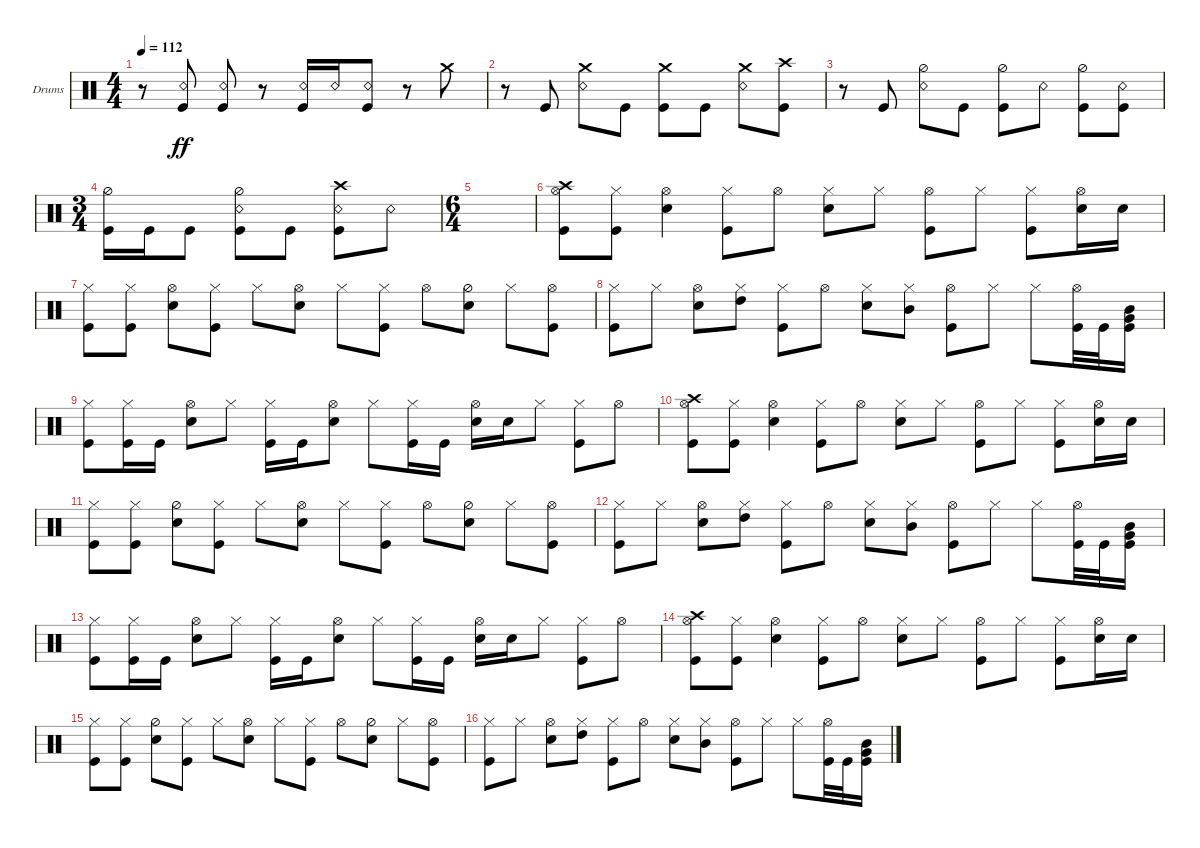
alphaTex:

\defaultSystemsLayout 4
\bracketExtendMode groupsimilarinstruments
\firstSystemTrackNameOrientation horizontal
\otherSystemsTrackNameOrientation horizontal
\track ("Kaleb - Drums" "Drums") {instrument percussion}
\staff {score}
\articulation defaults
\ts (4 4)
\tempo 112
\clef neutral
\ks c
r.8{dy ff} ("Snare (rim shot)" "Kick (hit)").8 ("Snare (rim shot)" "Kick (hit)").8 r.8 ("Snare (rim shot)" "Kick (hit)").16 "Snare (rim shot)".16 ("Snare (rim shot)" "Kick (hit)").8 r.8 "Crash medium (hit)".8 |
r.8 "Kick (hit)".8 ("Snare (rim shot)" "Crash medium (hit)").8 "Kick (hit)".8 ("Kick (hit)" "Crash medium (hit)").8 "Kick (hit)".8 ("Snare (rim shot)" "Crash medium (hit)").8 ("Kick (hit)" "Crash high (hit)").8 |
r.8 "Kick (hit)".8 ("Snare (rim shot)" "Hi-Hat (half)").8 "Kick (hit)".8 ("Kick (hit)" "Hi-Hat (half)").8 "Snare (rim shot)".8 ("Kick (hit)" "Hi-Hat (half)").8 ("Snare (rim shot)" "Kick (hit)").8 |
\ts (3 4)
("Kick (hit)" "Hi-Hat (half)").16 "Kick (hit)".16 "Kick (hit)".8 ("Kick (hit)" "Hi-Hat (half)" "Snare (rim shot)").8 "Kick (hit)".8 ("Kick (hit)" "Snare (rim shot)" "Crash high (hit)").8 "Snare (rim shot)".8 |
\ts (6 4)
|
("Hi-Hat (open)" "Kick (hit)" "Crash high (hit)").8 ("Kick (hit)" "Hi-Hat (closed)").8 ("Hi-Hat (open)" "Snare (hit) 2").4 ("Kick (hit)" "Hi-Hat (closed)").8 "Hi-Hat (open)".8 ("Hi-Hat (closed)" "Snare (hit) 2").8 "Hi-Hat (closed)".8 ("Hi-Hat (open)" "Kick (hit)").8 "Hi-Hat (closed)".8 ("Kick (hit)" "Hi-Hat (closed)").8 ("Snare (hit) 2" "Hi-Hat (open)").16 "Snare (hit) 2".16 |
("Hi-Hat (closed)" "Kick (hit)").8 ("Hi-Hat (closed)" "Kick (hit)").8 ("Hi-Hat (open)" "Snare (hit) 2").8 ("Hi-Hat (closed)" "Kick (hit)").8 "Hi-Hat (closed)".8 ("Hi-Hat (open)" "Snare (hit) 2").8 "Hi-Hat (closed)".8 ("Hi-Hat (closed)" "Kick (hit)").8 "Hi-Hat (open)".8 ("Hi-Hat (half)" "Snare (hit) 2").8 "Hi-Hat (closed)".8 ("Hi-Hat (open)" "Kick (hit)").8 |
("Kick (hit)" "Hi-Hat (closed)").8 "Hi-Hat (closed)".8 ("Hi-Hat (open)" "Snare (hit) 2").8 ("Hi-Hat (closed)" "High Tom (hit)").8 ("Hi-Hat (closed)" "Kick (hit)").8 "Hi-Hat (open)".8 ("Hi-Hat (closed)" "Snare (hit) 2").8 ("Hi-Hat (closed)" "Mid Tom (hit)").8 ("Hi-Hat (open)" "Kick (hit)").8 "Hi-Hat (closed)".8 "Hi-Hat (closed)".8 ("Kick (hit)" "Hi-Hat (open)").32 "Kick (hit)".32 ("Mid Tom (hit)" "Very Low Tom (hit)" "Kick (hit)").16 |
("Kick (hit)" "Hi-Hat (closed)").8 ("Kick (hit)" "Hi-Hat (closed)").16 "Kick (hit)".16 ("Snare (hit) 2" "Hi-Hat (open)").8 "Hi-Hat (closed)".8 ("Hi-Hat (closed)" "Kick (hit)").16 "Kick (hit)".16 ("Hi-Hat (open)" "Snare (hit) 2").8 "Hi-Hat (closed)".8 ("Hi-Hat (closed)" "Kick (hit)").16 "Kick (hit)".16 ("Hi-Hat (open)" "Snare (hit) 2").16 "Snare (hit) 2".16 "Hi-Hat (closed)".8 ("Hi-Hat (closed)" "Kick (hit)").8 "Hi-Hat (open)".8 |
("Hi-Hat (open)" "Kick (hit)" "Crash high (hit)").8 ("Kick (hit)" "Hi-Hat (closed)").8 ("Hi-Hat (open)" "Snare (hit) 2").4 ("Kick (hit)" "Hi-Hat (closed)").8 "Hi-Hat (open)".8 ("Hi-Hat (closed)" "Snare (hit) 2").8 "Hi-Hat (closed)".8 ("Hi-Hat (open)" "Kick (hit)").8 "Hi-Hat (closed)".8 ("Kick (hit)" "Hi-Hat (closed)").8 ("Snare (hit) 2" "Hi-Hat (open)").16 "Snare (hit) 2".16 |
("Hi-Hat (closed)" "Kick (hit)").8 ("Hi-Hat (closed)" "Kick (hit)").8 ("Hi-Hat (half)" "Snare (hit) 2").8 ("Hi-Hat (closed)" "Kick (hit)").8 "Hi-Hat (closed)".8 ("Hi-Hat (open)" "Snare (hit) 2").8 "Hi-Hat (closed)".8 ("Hi-Hat (closed)" "Kick (hit)").8 "Hi-Hat (open)".8 ("Hi-Hat (half)" "Snare (hit) 2").8 "Hi-Hat (closed)".8 ("Hi-Hat (open)" "Kick (hit)").8 |
("Kick (hit)" "Hi-Hat (closed)").8 "Hi-Hat (closed)".8 ("Hi-Hat (open)" "Snare (hit) 2").8 ("Hi-Hat (closed)" "High Tom (hit)").8 ("Hi-Hat (closed)" "Kick (hit)").8 "Hi-Hat (open)".8 ("Hi-Hat (closed)" "Snare (hit) 2").8 ("Hi-Hat (closed)" "Mid Tom (hit)").8 ("Hi-Hat (open)" "Kick (hit)").8 "Hi-Hat (closed)".8 "Hi-Hat (closed)".8 ("Kick (hit)" "Hi-Hat (open)").32 "Kick (hit)".32 ("Mid Tom (hit)" "Very Low Tom (hit)" "Kick (hit)").16 |
("Kick (hit)" "Hi-Hat (closed)").8 ("Kick (hit)" "Hi-Hat (closed)").16 "Kick (hit)".16 ("Snare (hit) 2" "Hi-Hat (open)").8 "Hi-Hat (closed)".8 ("Hi-Hat (closed)" "Kick (hit)").16 "Kick (hit)".16 ("Hi-Hat (open)" "Snare (hit) 2").8 "Hi-Hat (closed)".8 ("Hi-Hat (closed)" "Kick (hit)").16 "Kick (hit)".16 ("Hi-Hat (open)" "Snare (hit) 2").16 "Snare (hit) 2".16 "Hi-Hat (closed)".8 ("Hi-Hat (closed)" "Kick (hit)").8 "Hi-Hat (open)".8 |
("Hi-Hat (open)" "Kick (hit)" "Crash high (hit)").8 ("Kick (hit)" "Hi-Hat (closed)").8 ("Hi-Hat (open)" "Snare (hit) 2").4 ("Kick (hit)" "Hi-Hat (closed)").8 "Hi-Hat (open)".8 ("Hi-Hat (closed)" "Snare (hit) 2").8 "Hi-Hat (closed)".8 ("Hi-Hat (open)" "Kick (hit)").8 "Hi-Hat (closed)".8 ("Kick (hit)" "Hi-Hat (closed)").8 ("Snare (hit) 2" "Hi-Hat (open)").16 "Snare (hit) 2".16 |
("Hi-Hat (closed)" "Kick (hit)").8 ("Hi-Hat (closed)" "Kick (hit)").8 ("Hi-Hat (half)" "Snare (hit) 2").8 ("Hi-Hat (closed)" "Kick (hit)").8 "Hi-Hat (closed)".8 ("Hi-Hat (open)" "Snare (hit) 2").8 "Hi-Hat (closed)".8 ("Hi-Hat (closed)" "Kick (hit)").8 "Hi-Hat (open)".8 ("Hi-Hat (half)" "Snare (hit) 2").8 "Hi-Hat (closed)".8 ("Hi-Hat (open)" "Kick (hit)").8 |
("Kick (hit)" "Hi-Hat (closed)").8 "Hi-Hat (closed)".8 ("Hi-Hat (open)" "Snare (hit) 2").8 ("Hi-Hat (closed)" "High Tom (hit)").8 ("Hi-Hat (closed)" "Kick (hit)").8 "Hi-Hat (open)".8 ("Hi-Hat (closed)" "Snare (hit) 2").8 ("Hi-Hat (closed)" "Mid Tom (hit)").8 ("Hi-Hat (open)" "Kick (hit)").8 "Hi-Hat (closed)".8 "Hi-Hat (closed)".8 ("Kick (hit)" "Hi-Hat (open)").32 "Kick (hit)".32 ("Mid Tom (hit)" "Very Low Tom (hit)" "Kick (hit)").16
